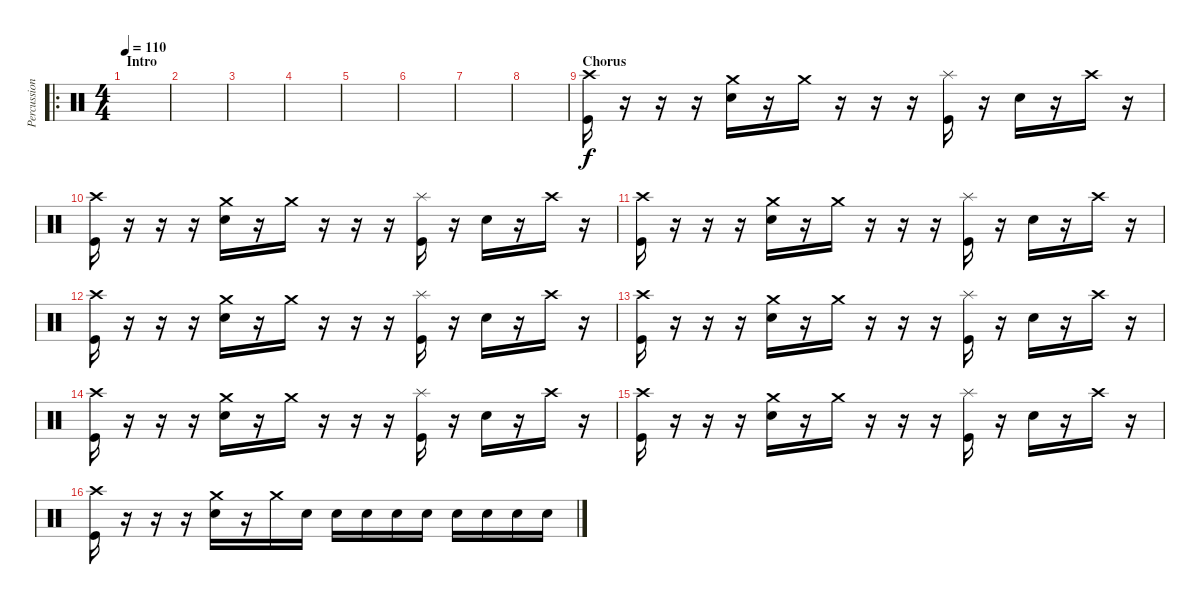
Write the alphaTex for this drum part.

\track ("Percussions" "Percussion") {instrument percussion}
\staff {score}
\articulation defaults
\ro
\ts (4 4)
\section ("" "Intro")
\tempo 110
\clef neutral
\ks c
|
|
|
|
|
|
|
|
\section ("" "Chorus")
("Crash high (hit)" "Kick (hit)").16 r.16 r.16 r.16 ("Crash medium (hit)" "Electric Snare (hit)").16 r.16 "Crash medium (hit)".16 r.16 r.16 r.16 ("Splash (hit)" "Kick (hit)").16 r.16 "Electric Snare (hit)".16 r.16 "Crash high (hit)".16 r.16 |
("Crash high (hit)" "Kick (hit)").16 r.16 r.16 r.16 ("Crash medium (hit)" "Electric Snare (hit)").16 r.16 "Crash medium (hit)".16 r.16 r.16 r.16 ("Splash (hit)" "Kick (hit)").16 r.16 "Electric Snare (hit)".16 r.16 "Crash high (hit)".16 r.16 |
("Crash high (hit)" "Kick (hit)").16 r.16 r.16 r.16 ("Crash medium (hit)" "Electric Snare (hit)").16 r.16 "Crash medium (hit)".16 r.16 r.16 r.16 ("Splash (hit)" "Kick (hit)").16 r.16 "Electric Snare (hit)".16 r.16 "Crash high (hit)".16 r.16 |
("Crash high (hit)" "Kick (hit)").16 r.16 r.16 r.16 ("Crash medium (hit)" "Electric Snare (hit)").16 r.16 "Crash medium (hit)".16 r.16 r.16 r.16 ("Splash (hit)" "Kick (hit)").16 r.16 "Electric Snare (hit)".16 r.16 "Crash high (hit)".16 r.16 |
("Crash high (hit)" "Kick (hit)").16 r.16 r.16 r.16 ("Crash medium (hit)" "Electric Snare (hit)").16 r.16 "Crash medium (hit)".16 r.16 r.16 r.16 ("Splash (hit)" "Kick (hit)").16 r.16 "Electric Snare (hit)".16 r.16 "Crash high (hit)".16 r.16 |
("Crash high (hit)" "Kick (hit)").16 r.16 r.16 r.16 ("Crash medium (hit)" "Electric Snare (hit)").16 r.16 "Crash medium (hit)".16 r.16 r.16 r.16 ("Splash (hit)" "Kick (hit)").16 r.16 "Electric Snare (hit)".16 r.16 "Crash high (hit)".16 r.16 |
("Crash high (hit)" "Kick (hit)").16 r.16 r.16 r.16 ("Crash medium (hit)" "Electric Snare (hit)").16 r.16 "Crash medium (hit)".16 r.16 r.16 r.16 ("Splash (hit)" "Kick (hit)").16 r.16 "Electric Snare (hit)".16 r.16 "Crash high (hit)".16 r.16 |
("Crash high (hit)" "Kick (hit)").16 r.16 r.16 r.16 ("Crash medium (hit)" "Electric Snare (hit)").16 r.16 "Crash medium (hit)".16 "Electric Snare (hit)".16 "Electric Snare (hit)".16 "Electric Snare (hit)".16 "Electric Snare (hit)".16 "Electric Snare (hit)".16 "Electric Snare (hit)".16 "Electric Snare (hit)".16 "Electric Snare (hit)".16 "Electric Snare (hit)".16
